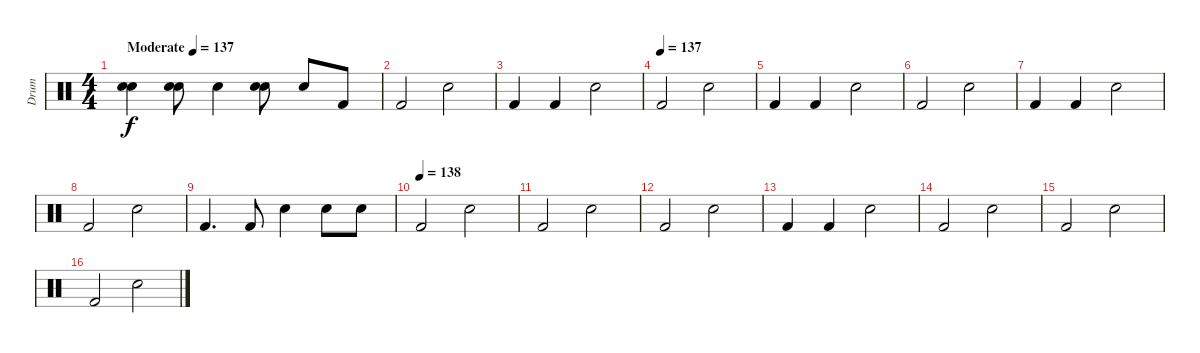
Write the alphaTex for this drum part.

\track ("Drum" "Drum") {instrument percussion}
\staff {score}
\articulation defaults
\ts (4 4)
\tempo (137 "Moderate")
\tempo 140
\tempo (137 "Moderate")
\clef neutral
\ks c
("Electric Snare (hit)" "Electric Snare (hit)").4{bd 240 dy f} ("Electric Snare (hit)" "Electric Snare (hit)").8{bd 240} "Electric Snare (hit)".4 ("Electric Snare (hit)" "Electric Snare (hit)").8{bd 240} "Electric Snare (hit)".8 "Kick (hit) 2".8 |
"Kick (hit) 2".2 "Electric Snare (hit)".2 |
"Kick (hit) 2".4 "Kick (hit) 2".4 "Electric Snare (hit)".2 |
\tempo (137)
"Kick (hit) 2".2 "Electric Snare (hit)".2 |
"Kick (hit) 2".4 "Kick (hit) 2".4 "Electric Snare (hit)".2 |
"Kick (hit) 2".2 "Electric Snare (hit)".2 |
"Kick (hit) 2".4 "Kick (hit) 2".4 "Electric Snare (hit)".2 |
"Kick (hit) 2".2 "Electric Snare (hit)".2 |
"Kick (hit) 2".4{d} "Kick (hit) 2".8 "Electric Snare (hit)".4 "Electric Snare (hit)".8 "Electric Snare (hit)".8 |
\tempo (138)
"Kick (hit) 2".2 "Electric Snare (hit)".2 |
"Kick (hit) 2".2 "Electric Snare (hit)".2 |
"Kick (hit) 2".2 "Electric Snare (hit)".2 |
"Kick (hit) 2".4 "Kick (hit) 2".4 "Electric Snare (hit)".2 |
"Kick (hit) 2".2 "Electric Snare (hit)".2 |
"Kick (hit) 2".2 "Electric Snare (hit)".2 |
"Kick (hit) 2".2 "Electric Snare (hit)".2
